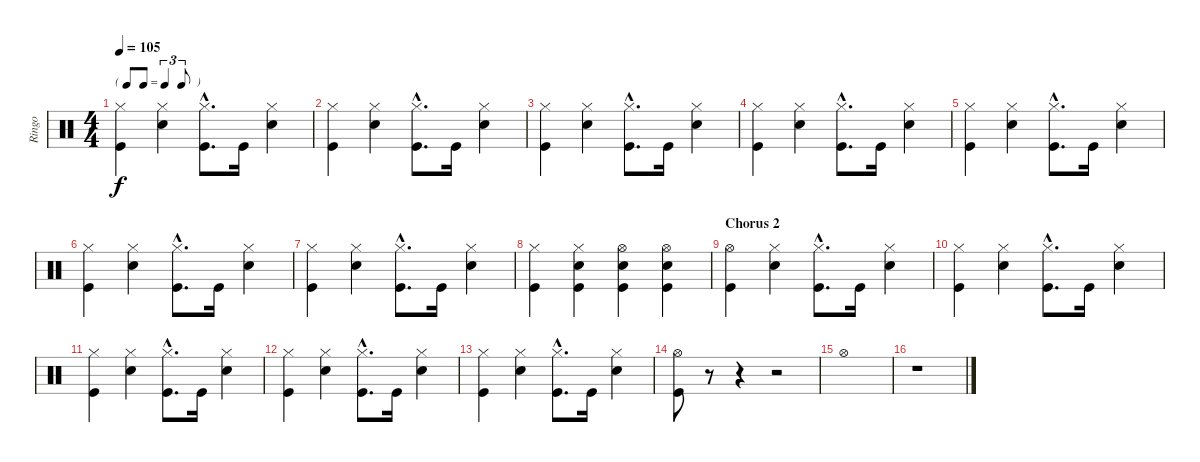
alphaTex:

\track ("Ringo" "Ringo") {instrument percussion}
\staff {score}
\articulation defaults
\ts (4 4)
\tf triplet8th
\tempo 105
\clef neutral
\ks c
("Hi-Hat (closed)" "Kick (hit)").4{dy f} ("Hi-Hat (closed)" "Snare (hit) 2").4 ("Hi-Hat (closed)"{hac} "Kick (hit)"{hac}).8{d} "Kick (hit)".16 ("Hi-Hat (closed)" "Snare (hit) 2").4 |
("Hi-Hat (closed)" "Kick (hit)").4 ("Hi-Hat (closed)" "Snare (hit) 2").4 ("Hi-Hat (closed)"{hac} "Kick (hit)"{hac}).8{d} "Kick (hit)".16 ("Hi-Hat (closed)" "Snare (hit) 2").4 |
("Hi-Hat (closed)" "Kick (hit)").4 ("Hi-Hat (closed)" "Snare (hit) 2").4 ("Hi-Hat (closed)"{hac} "Kick (hit)"{hac}).8{d} "Kick (hit)".16 ("Hi-Hat (closed)" "Snare (hit) 2").4 |
("Hi-Hat (closed)" "Kick (hit)").4 ("Hi-Hat (closed)" "Snare (hit) 2").4 ("Hi-Hat (closed)"{hac} "Kick (hit)"{hac}).8{d} "Kick (hit)".16 ("Hi-Hat (closed)" "Snare (hit) 2").4 |
("Hi-Hat (closed)" "Kick (hit)").4 ("Hi-Hat (closed)" "Snare (hit) 2").4 ("Hi-Hat (closed)"{hac} "Kick (hit)"{hac}).8{d} "Kick (hit)".16 ("Hi-Hat (closed)" "Snare (hit) 2").4 |
("Hi-Hat (closed)" "Kick (hit)").4 ("Hi-Hat (closed)" "Snare (hit) 2").4 ("Hi-Hat (closed)"{hac} "Kick (hit)"{hac}).8{d} "Kick (hit)".16 ("Hi-Hat (closed)" "Snare (hit) 2").4 |
("Hi-Hat (closed)" "Kick (hit)").4 ("Hi-Hat (closed)" "Snare (hit) 2").4 ("Hi-Hat (closed)"{hac} "Kick (hit)"{hac}).8{d} "Kick (hit)".16 ("Hi-Hat (closed)" "Snare (hit) 2").4 |
("Hi-Hat (closed)" "Kick (hit)").4 ("Hi-Hat (closed)" "Snare (hit) 2" "Kick (hit)").4 ("Hi-Hat (open)" "Snare (hit) 2" "Kick (hit)").4 ("Hi-Hat (open)" "Snare (hit) 2" "Kick (hit)").4 |
\section ("" "Chorus 2")
("Hi-Hat (open)" "Kick (hit)").4 ("Hi-Hat (closed)" "Snare (hit) 2").4 ("Hi-Hat (closed)"{hac} "Kick (hit)"{hac}).8{d} "Kick (hit)".16 ("Hi-Hat (closed)" "Snare (hit) 2").4 |
("Hi-Hat (closed)" "Kick (hit)").4 ("Hi-Hat (closed)" "Snare (hit) 2").4 ("Hi-Hat (closed)"{hac} "Kick (hit)"{hac}).8{d} "Kick (hit)".16 ("Hi-Hat (closed)" "Snare (hit) 2").4 |
("Hi-Hat (closed)" "Kick (hit)").4 ("Hi-Hat (closed)" "Snare (hit) 2").4 ("Hi-Hat (closed)"{hac} "Kick (hit)"{hac}).8{d} "Kick (hit)".16 ("Hi-Hat (closed)" "Snare (hit) 2").4 |
("Hi-Hat (closed)" "Kick (hit)").4 ("Hi-Hat (closed)" "Snare (hit) 2").4 ("Hi-Hat (closed)"{hac} "Kick (hit)"{hac}).8{d} "Kick (hit)".16 ("Hi-Hat (closed)" "Snare (hit) 2").4 |
("Hi-Hat (closed)" "Kick (hit)").4 ("Hi-Hat (closed)" "Snare (hit) 2").4 ("Hi-Hat (closed)"{hac} "Kick (hit)"{hac}).8{d} "Kick (hit)".16 ("Hi-Hat (closed)" "Snare (hit) 2").4 |
("Hi-Hat (open)" "Kick (hit)").8 r.8 r.4 r.2 |
"Hi-Hat (open)".1 |
r.1
